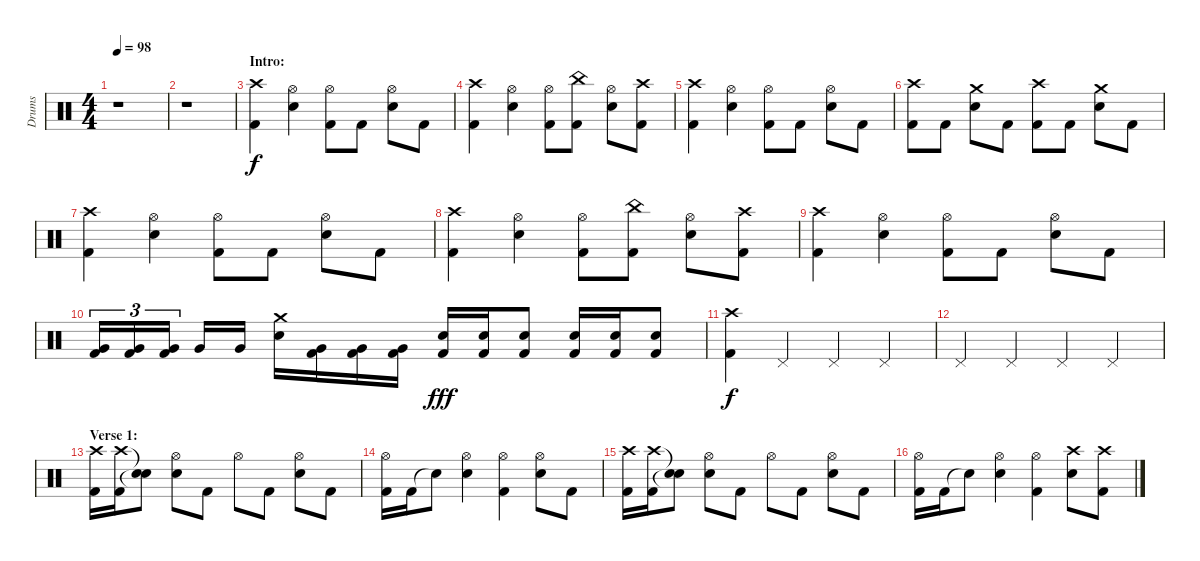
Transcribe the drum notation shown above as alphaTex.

\track ("Drums" "Drums") {instrument percussion}
\staff {score}
\articulation defaults
\ts (4 4)
\tempo 98
\clef neutral
\ks c
r.1{dy f} |
r.1 |
\section ("" "Intro:")
("Crash high (hit)" "Kick (hit) 2").4 ("Hi-Hat (open)" "Electric Snare (hit)").4 ("Hi-Hat (open)" "Kick (hit) 2").8 "Kick (hit) 2".8 ("Hi-Hat (open)" "Electric Snare (hit)").8 "Kick (hit) 2".8 |
("Crash high (hit)" "Kick (hit) 2").4 ("Hi-Hat (open)" "Electric Snare (hit)").4 ("Hi-Hat (open)" "Kick (hit) 2").8 ("China (hit)" "Kick (hit) 2").8 ("Hi-Hat (open)" "Electric Snare (hit)").8 ("Crash high (hit)" "Kick (hit) 2").8 |
("Crash high (hit)" "Kick (hit) 2").4 ("Hi-Hat (open)" "Electric Snare (hit)").4 ("Hi-Hat (open)" "Kick (hit) 2").8 "Kick (hit) 2".8 ("Hi-Hat (open)" "Electric Snare (hit)").8 "Kick (hit) 2".8 |
("Crash high (hit)" "Kick (hit) 2").8 "Kick (hit) 2".8 ("Crash medium (hit)" "Electric Snare (hit)").8 "Kick (hit) 2".8 ("Crash high (hit)" "Kick (hit) 2").8 "Kick (hit) 2".8 ("Crash medium (hit)" "Electric Snare (hit)").8 "Kick (hit) 2".8 |
("Crash high (hit)" "Kick (hit) 2").4 ("Hi-Hat (open)" "Electric Snare (hit)").4 ("Hi-Hat (open)" "Kick (hit) 2").8 "Kick (hit) 2".8 ("Hi-Hat (open)" "Electric Snare (hit)").8 "Kick (hit) 2".8 |
("Crash high (hit)" "Kick (hit) 2").4 ("Hi-Hat (open)" "Electric Snare (hit)").4 ("Hi-Hat (open)" "Kick (hit) 2").8 ("China (hit)" "Kick (hit) 2").8 ("Hi-Hat (open)" "Electric Snare (hit)").8 ("Crash high (hit)" "Kick (hit) 2").8 |
("Crash high (hit)" "Kick (hit) 2").4 ("Hi-Hat (open)" "Electric Snare (hit)").4 ("Hi-Hat (open)" "Kick (hit) 2").8 "Kick (hit) 2".8 ("Hi-Hat (open)" "Electric Snare (hit)").8 "Kick (hit) 2".8 |
("Very Low Tom (hit)" "Kick (hit) 2").16{tu (3 2)} ("Very Low Tom (hit)" "Kick (hit) 2").16{tu (3 2)} ("Very Low Tom (hit)" "Kick (hit) 2").16{tu (3 2)} "Very Low Tom (hit)".16 "Very Low Tom (hit)".16 ("Crash medium (hit)" "Electric Snare (hit)").16 ("Very Low Tom (hit)" "Kick (hit) 2").16 ("Very Low Tom (hit)" "Kick (hit) 2").16 ("Very Low Tom (hit)" "Kick (hit) 2").16 ("Electric Snare (hit)" "Kick (hit) 2").16{dy fff} ("Electric Snare (hit)" "Kick (hit) 2").16 ("Electric Snare (hit)" "Kick (hit) 2").8 ("Electric Snare (hit)" "Kick (hit) 2").16 ("Electric Snare (hit)" "Kick (hit) 2").16 ("Electric Snare (hit)" "Kick (hit) 2").8 |
("Crash high (hit)" "Kick (hit) 2").4{dy f} "Pedal Hi-Hat (hit)".4 "Pedal Hi-Hat (hit)".4 "Pedal Hi-Hat (hit)".4 |
"Pedal Hi-Hat (hit)".4 "Pedal Hi-Hat (hit)".4 "Pedal Hi-Hat (hit)".4 "Pedal Hi-Hat (hit)".4 |
\section ("" "Verse 1:")
("Crash high (hit)" "Kick (hit) 2").16 ("Crash high (hit)" "Kick (hit) 2").16 ("Snare (hit)"{t} "Snare (hit)"{t}).8 ("Hi-Hat (open)" "Electric Snare (hit)").8 "Kick (hit) 2".8 "Hi-Hat (open)".8 "Kick (hit) 2".8 ("Hi-Hat (open)" "Electric Snare (hit)").8 "Kick (hit) 2".8 |
("Hi-Hat (open)" "Kick (hit) 2").16 "Kick (hit) 2".16 "Snare (hit)"{t}.8 ("Hi-Hat (open)" "Electric Snare (hit)").4 ("Hi-Hat (open)" "Kick (hit) 2").4 ("Hi-Hat (open)" "Electric Snare (hit)").8 "Kick (hit) 2".8 |
("Crash high (hit)" "Kick (hit) 2").16 ("Crash high (hit)" "Kick (hit) 2").16 ("Snare (hit)"{t} "Snare (hit)"{t}).8 ("Hi-Hat (open)" "Electric Snare (hit)").8 "Kick (hit) 2".8 "Hi-Hat (open)".8 "Kick (hit) 2".8 ("Hi-Hat (open)" "Electric Snare (hit)").8 "Kick (hit) 2".8 |
("Hi-Hat (open)" "Kick (hit) 2").16 "Kick (hit) 2".16 "Snare (hit)"{t}.8 ("Hi-Hat (open)" "Electric Snare (hit)").4 ("Hi-Hat (open)" "Kick (hit) 2").4 ("Crash high (hit)" "Electric Snare (hit)").8 ("Crash high (hit)" "Kick (hit) 2").8
